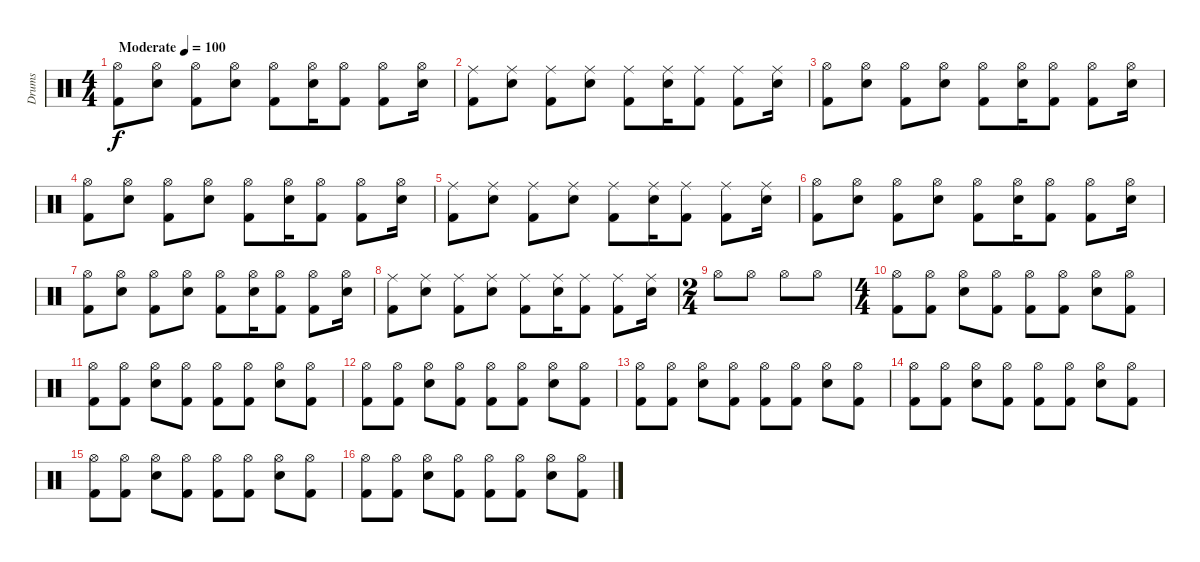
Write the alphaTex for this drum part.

\track ("Drums" "Drums") {instrument percussion}
\staff {score}
\articulation defaults
\ts (4 4)
\tempo (100 "Moderate")
\clef neutral
\ks c
("Hi-Hat (open)" "Kick (hit) 2").8{dy f} ("Hi-Hat (open)" "Snare (hit) 2").8 ("Hi-Hat (open)" "Kick (hit) 2").8 ("Hi-Hat (open)" "Snare (hit) 2").8 ("Hi-Hat (open)" "Kick (hit) 2").8 ("Hi-Hat (open)" "Snare (hit) 2").16 ("Hi-Hat (open)" "Kick (hit) 2").8 ("Hi-Hat (open)" "Kick (hit) 2").8 ("Hi-Hat (open)" "Snare (hit) 2").16 |
("Ride (middle)" "Kick (hit) 2").8 ("Ride (middle)" "Snare (hit) 2").8 ("Ride (middle)" "Kick (hit) 2").8 ("Ride (middle)" "Snare (hit) 2").8 ("Ride (middle)" "Kick (hit) 2").8 ("Ride (middle)" "Snare (hit) 2").16 ("Ride (middle)" "Kick (hit) 2").8 ("Ride (middle)" "Kick (hit) 2").8 ("Ride (middle)" "Snare (hit) 2").16 |
("Hi-Hat (open)" "Kick (hit) 2").8 ("Hi-Hat (open)" "Snare (hit) 2").8 ("Hi-Hat (open)" "Kick (hit) 2").8 ("Hi-Hat (open)" "Snare (hit) 2").8 ("Hi-Hat (open)" "Kick (hit) 2").8 ("Hi-Hat (open)" "Snare (hit) 2").16 ("Hi-Hat (open)" "Kick (hit) 2").8 ("Hi-Hat (open)" "Kick (hit) 2").8 ("Hi-Hat (open)" "Snare (hit) 2").16 |
("Hi-Hat (open)" "Kick (hit) 2").8 ("Hi-Hat (open)" "Snare (hit) 2").8 ("Hi-Hat (open)" "Kick (hit) 2").8 ("Hi-Hat (open)" "Snare (hit) 2").8 ("Hi-Hat (open)" "Kick (hit) 2").8 ("Hi-Hat (open)" "Snare (hit) 2").16 ("Hi-Hat (open)" "Kick (hit) 2").8 ("Hi-Hat (open)" "Kick (hit) 2").8 ("Hi-Hat (open)" "Snare (hit) 2").16 |
("Ride (middle)" "Kick (hit) 2").8 ("Ride (middle)" "Snare (hit) 2").8 ("Ride (middle)" "Kick (hit) 2").8 ("Ride (middle)" "Snare (hit) 2").8 ("Ride (middle)" "Kick (hit) 2").8 ("Ride (middle)" "Snare (hit) 2").16 ("Ride (middle)" "Kick (hit) 2").8 ("Ride (middle)" "Kick (hit) 2").8 ("Ride (middle)" "Snare (hit) 2").16 |
("Hi-Hat (open)" "Kick (hit) 2").8 ("Hi-Hat (open)" "Snare (hit) 2").8 ("Hi-Hat (open)" "Kick (hit) 2").8 ("Hi-Hat (open)" "Snare (hit) 2").8 ("Hi-Hat (open)" "Kick (hit) 2").8 ("Hi-Hat (open)" "Snare (hit) 2").16 ("Hi-Hat (open)" "Kick (hit) 2").8 ("Hi-Hat (open)" "Kick (hit) 2").8 ("Hi-Hat (open)" "Snare (hit) 2").16 |
("Hi-Hat (open)" "Kick (hit) 2").8 ("Hi-Hat (open)" "Snare (hit) 2").8 ("Hi-Hat (open)" "Kick (hit) 2").8 ("Hi-Hat (open)" "Snare (hit) 2").8 ("Hi-Hat (open)" "Kick (hit) 2").8 ("Hi-Hat (open)" "Snare (hit) 2").16 ("Hi-Hat (open)" "Kick (hit) 2").8 ("Hi-Hat (open)" "Kick (hit) 2").8 ("Hi-Hat (open)" "Snare (hit) 2").16 |
("Ride (middle)" "Kick (hit) 2").8 ("Ride (middle)" "Snare (hit) 2").8 ("Ride (middle)" "Kick (hit) 2").8 ("Ride (middle)" "Snare (hit) 2").8 ("Ride (middle)" "Kick (hit) 2").8 ("Ride (middle)" "Snare (hit) 2").16 ("Ride (middle)" "Kick (hit) 2").8 ("Ride (middle)" "Kick (hit) 2").8 ("Ride (middle)" "Snare (hit) 2").16 |
\ts (2 4)
"Hi-Hat (open)".8 "Hi-Hat (open)".8 "Hi-Hat (open)".8 "Hi-Hat (open)".8 |
\ts (4 4)
("Hi-Hat (open)" "Kick (hit) 2").8 ("Hi-Hat (open)" "Kick (hit) 2").8 ("Hi-Hat (open)" "Snare (hit) 2").8 ("Hi-Hat (open)" "Kick (hit) 2").8 ("Hi-Hat (open)" "Kick (hit) 2").8 ("Hi-Hat (open)" "Kick (hit) 2").8 ("Hi-Hat (open)" "Snare (hit) 2").8 ("Hi-Hat (open)" "Kick (hit) 2").8 |
("Hi-Hat (open)" "Kick (hit) 2").8 ("Hi-Hat (open)" "Kick (hit) 2").8 ("Hi-Hat (open)" "Snare (hit) 2").8 ("Hi-Hat (open)" "Kick (hit) 2").8 ("Hi-Hat (open)" "Kick (hit) 2").8 ("Hi-Hat (open)" "Kick (hit) 2").8 ("Hi-Hat (open)" "Snare (hit) 2").8 ("Hi-Hat (open)" "Kick (hit) 2").8 |
("Hi-Hat (open)" "Kick (hit) 2").8 ("Hi-Hat (open)" "Kick (hit) 2").8 ("Hi-Hat (open)" "Snare (hit) 2").8 ("Hi-Hat (open)" "Kick (hit) 2").8 ("Hi-Hat (open)" "Kick (hit) 2").8 ("Hi-Hat (open)" "Kick (hit) 2").8 ("Hi-Hat (open)" "Snare (hit) 2").8 ("Hi-Hat (open)" "Kick (hit) 2").8 |
("Hi-Hat (open)" "Kick (hit) 2").8 ("Hi-Hat (open)" "Kick (hit) 2").8 ("Hi-Hat (open)" "Snare (hit) 2").8 ("Hi-Hat (open)" "Kick (hit) 2").8 ("Hi-Hat (open)" "Kick (hit) 2").8 ("Hi-Hat (open)" "Kick (hit) 2").8 ("Hi-Hat (open)" "Snare (hit) 2").8 ("Hi-Hat (open)" "Kick (hit) 2").8 |
("Hi-Hat (open)" "Kick (hit) 2").8 ("Hi-Hat (open)" "Kick (hit) 2").8 ("Hi-Hat (open)" "Snare (hit) 2").8 ("Hi-Hat (open)" "Kick (hit) 2").8 ("Hi-Hat (open)" "Kick (hit) 2").8 ("Hi-Hat (open)" "Kick (hit) 2").8 ("Hi-Hat (open)" "Snare (hit) 2").8 ("Hi-Hat (open)" "Kick (hit) 2").8 |
("Hi-Hat (open)" "Kick (hit) 2").8 ("Hi-Hat (open)" "Kick (hit) 2").8 ("Hi-Hat (open)" "Snare (hit) 2").8 ("Hi-Hat (open)" "Kick (hit) 2").8 ("Hi-Hat (open)" "Kick (hit) 2").8 ("Hi-Hat (open)" "Kick (hit) 2").8 ("Hi-Hat (open)" "Snare (hit) 2").8 ("Hi-Hat (open)" "Kick (hit) 2").8 |
("Hi-Hat (open)" "Kick (hit) 2").8 ("Hi-Hat (open)" "Kick (hit) 2").8 ("Hi-Hat (open)" "Snare (hit) 2").8 ("Hi-Hat (open)" "Kick (hit) 2").8 ("Hi-Hat (open)" "Kick (hit) 2").8 ("Hi-Hat (open)" "Kick (hit) 2").8 ("Hi-Hat (open)" "Snare (hit) 2").8 ("Hi-Hat (open)" "Kick (hit) 2").8
